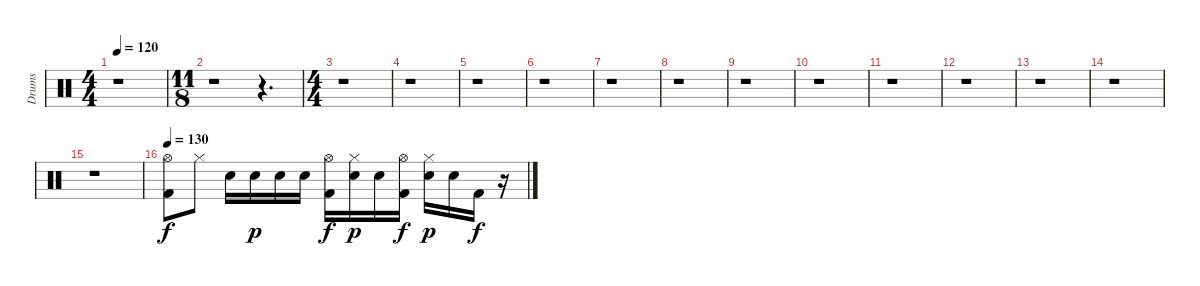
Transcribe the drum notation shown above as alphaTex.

\track ("Drums" "Drums") {instrument percussion}
\staff {score}
\articulation defaults
\ts (4 4)
\tempo 120
\clef neutral
\ks c
r.1{dy p} |
\ts (11 8)
r.1 r.4{d} |
\ts (4 4)
r.1 |
r.1 |
r.1 |
r.1 |
r.1 |
r.1 |
r.1 |
r.1 |
r.1 |
r.1 |
r.1 |
r.1 |
r.1 |
\tempo 130
("Kick (hit) 2" "Hi-Hat (open)").8{dy f} "Hi-Hat (closed)".8 "Electric Snare (hit)".16 "Electric Snare (hit)".16{dy p} "Electric Snare (hit)".16 "Electric Snare (hit)".16 ("Kick (hit) 2" "Hi-Hat (open)").16{dy f} ("Hi-Hat (closed)" "Electric Snare (hit)").16{dy p} "Electric Snare (hit)".16 ("Kick (hit) 2" "Hi-Hat (open)").16{dy f} ("Hi-Hat (closed)" "Electric Snare (hit)").16{dy p} "Electric Snare (hit)".16 "Kick (hit) 2".16{dy f} r.16
